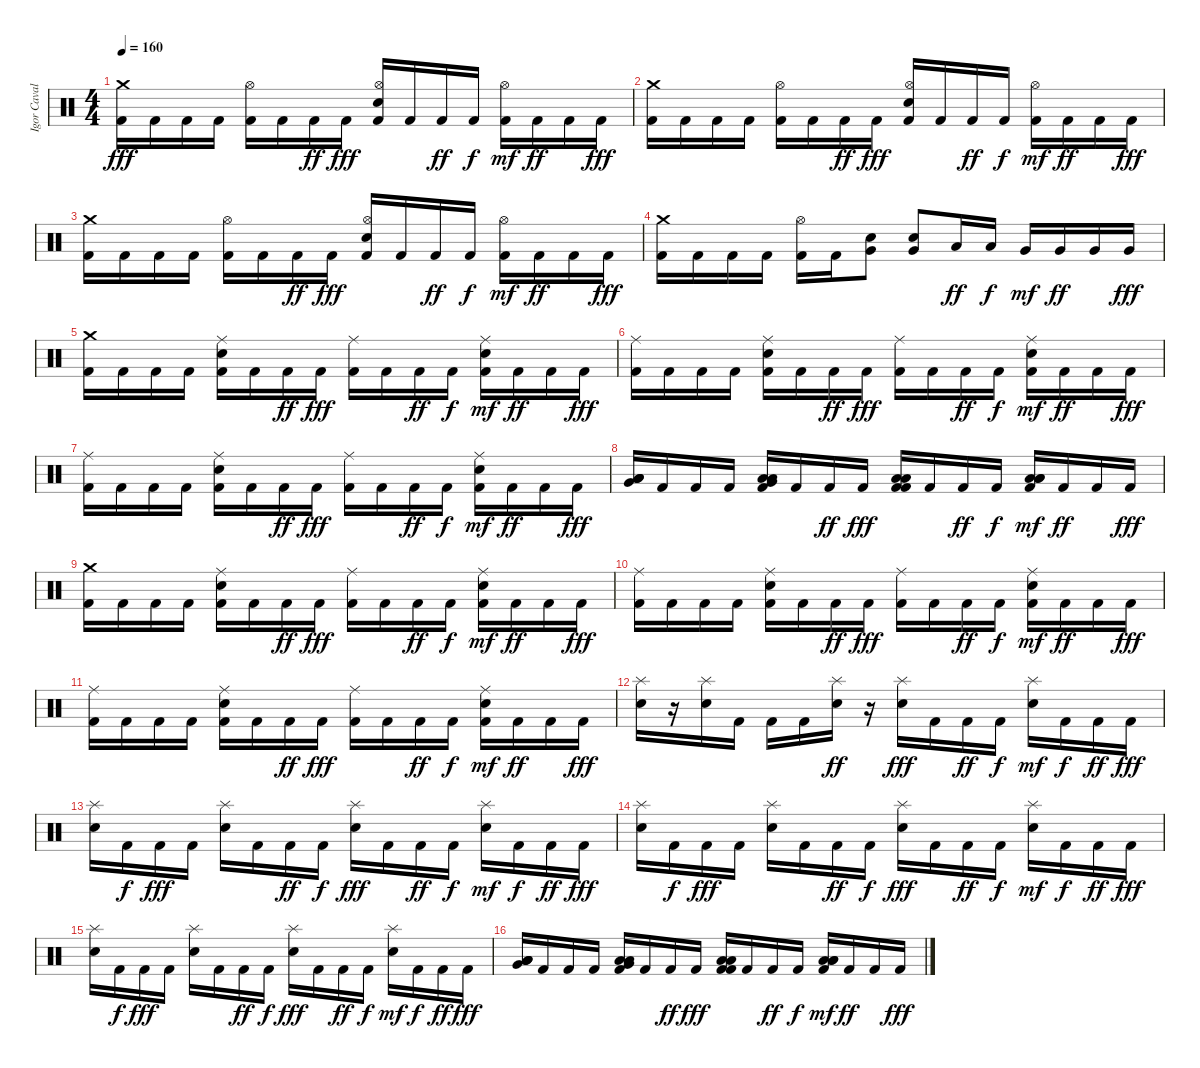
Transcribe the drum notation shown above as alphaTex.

\track ("Igor Cavalera" "Igor Caval") {instrument percussion}
\staff {score}
\articulation defaults
\ts (4 4)
\tempo 160
\clef neutral
\ks c
("Kick (hit) 2" "Crash medium (hit)").16{dy fff} "Kick (hit) 2".16 "Kick (hit) 2".16 "Kick (hit) 2".16 ("Kick (hit) 2" "Hi-Hat (open)").16 "Kick (hit) 2".16 "Kick (hit) 2".16{dy ff} "Kick (hit) 2".16{dy fff} ("Kick (hit) 2" "Electric Snare (hit)" "Hi-Hat (open)").16 "Kick (hit) 2".16 "Kick (hit) 2".16{dy ff} "Kick (hit) 2".16{dy f} ("Kick (hit) 2" "Hi-Hat (open)").16{dy mf} "Kick (hit) 2".16{dy ff} "Kick (hit) 2".16 "Kick (hit) 2".16{dy fff} |
("Kick (hit) 2" "Crash medium (hit)").16 "Kick (hit) 2".16 "Kick (hit) 2".16 "Kick (hit) 2".16 ("Kick (hit) 2" "Hi-Hat (open)").16 "Kick (hit) 2".16 "Kick (hit) 2".16{dy ff} "Kick (hit) 2".16{dy fff} ("Kick (hit) 2" "Electric Snare (hit)" "Hi-Hat (open)").16 "Kick (hit) 2".16 "Kick (hit) 2".16{dy ff} "Kick (hit) 2".16{dy f} ("Kick (hit) 2" "Hi-Hat (open)").16{dy mf} "Kick (hit) 2".16{dy ff} "Kick (hit) 2".16 "Kick (hit) 2".16{dy fff} |
("Kick (hit) 2" "Crash medium (hit)").16 "Kick (hit) 2".16 "Kick (hit) 2".16 "Kick (hit) 2".16 ("Kick (hit) 2" "Hi-Hat (open)").16 "Kick (hit) 2".16 "Kick (hit) 2".16{dy ff} "Kick (hit) 2".16{dy fff} ("Kick (hit) 2" "Electric Snare (hit)" "Hi-Hat (open)").16 "Kick (hit) 2".16 "Kick (hit) 2".16{dy ff} "Kick (hit) 2".16{dy f} ("Kick (hit) 2" "Hi-Hat (open)").16{dy mf} "Kick (hit) 2".16{dy ff} "Kick (hit) 2".16 "Kick (hit) 2".16{dy fff} |
("Kick (hit) 2" "Crash medium (hit)").16 "Kick (hit) 2".16 "Kick (hit) 2".16 "Kick (hit) 2".16 ("Kick (hit) 2" "Hi-Hat (open)").16 "Kick (hit) 2".16 ("Very Low Tom (hit)" "Electric Snare (hit)").8 ("Very Low Tom (hit)" "Electric Snare (hit)").8 "Low Tom (hit)".16{dy ff} "Low Tom (hit)".16{dy f} "Very Low Tom (hit)".16{dy mf} "Very Low Tom (hit)".16{dy ff} "Very Low Tom (hit)".16 "Very Low Tom (hit)".16{dy fff} |
("Kick (hit) 2" "Crash medium (hit)").16 "Kick (hit) 2".16 "Kick (hit) 2".16 "Kick (hit) 2".16 ("Kick (hit) 2" "Electric Snare (hit)" "Ride (middle)").16 "Kick (hit) 2".16 "Kick (hit) 2".16{dy ff} "Kick (hit) 2".16{dy fff} ("Kick (hit) 2" "Ride (middle)").16 "Kick (hit) 2".16 "Kick (hit) 2".16{dy ff} "Kick (hit) 2".16{dy f} ("Kick (hit) 2" "Electric Snare (hit)" "Ride (middle)").16{dy mf} "Kick (hit) 2".16{dy ff} "Kick (hit) 2".16 "Kick (hit) 2".16{dy fff} |
("Kick (hit) 2" "Ride (middle)").16 "Kick (hit) 2".16 "Kick (hit) 2".16 "Kick (hit) 2".16 ("Kick (hit) 2" "Electric Snare (hit)" "Ride (middle)").16 "Kick (hit) 2".16 "Kick (hit) 2".16{dy ff} "Kick (hit) 2".16{dy fff} ("Kick (hit) 2" "Ride (middle)").16 "Kick (hit) 2".16 "Kick (hit) 2".16{dy ff} "Kick (hit) 2".16{dy f} ("Kick (hit) 2" "Electric Snare (hit)" "Ride (middle)").16{dy mf} "Kick (hit) 2".16{dy ff} "Kick (hit) 2".16 "Kick (hit) 2".16{dy fff} |
("Kick (hit) 2" "Ride (middle)").16 "Kick (hit) 2".16 "Kick (hit) 2".16 "Kick (hit) 2".16 ("Kick (hit) 2" "Electric Snare (hit)" "Ride (middle)").16 "Kick (hit) 2".16 "Kick (hit) 2".16{dy ff} "Kick (hit) 2".16{dy fff} ("Kick (hit) 2" "Ride (middle)").16 "Kick (hit) 2".16 "Kick (hit) 2".16{dy ff} "Kick (hit) 2".16{dy f} ("Kick (hit) 2" "Electric Snare (hit)" "Ride (middle)").16{dy mf} "Kick (hit) 2".16{dy ff} "Kick (hit) 2".16 "Kick (hit) 2".16{dy fff} |
("Low Floor Tom (hit)" "Low Tom (hit)" "Low Floor Tom (hit)" "Very Low Tom (hit)").16 "Kick (hit) 2".16 "Kick (hit) 2".16 "Kick (hit) 2".16 ("Low Floor Tom (hit)" "Kick (hit) 2" "Low Floor Tom (hit)" "Very Low Tom (hit)").16 "Kick (hit) 2".16 "Kick (hit) 2".16{dy ff} "Kick (hit) 2".16{dy fff} ("Low Floor Tom (hit)" "Kick (hit) 2" "Low Floor Tom (hit)" "Kick (hit) 2").16 "Kick (hit) 2".16 "Kick (hit) 2".16{dy ff} "Kick (hit) 2".16{dy f} ("Low Floor Tom (hit)" "Kick (hit) 2" "Low Floor Tom (hit)" "Low Tom (hit)").16{dy mf} "Kick (hit) 2".16{dy ff} "Kick (hit) 2".16 "Kick (hit) 2".16{dy fff} |
("Kick (hit) 2" "Crash medium (hit)").16 "Kick (hit) 2".16 "Kick (hit) 2".16 "Kick (hit) 2".16 ("Kick (hit) 2" "Electric Snare (hit)" "Ride (middle)").16 "Kick (hit) 2".16 "Kick (hit) 2".16{dy ff} "Kick (hit) 2".16{dy fff} ("Kick (hit) 2" "Ride (middle)").16 "Kick (hit) 2".16 "Kick (hit) 2".16{dy ff} "Kick (hit) 2".16{dy f} ("Kick (hit) 2" "Electric Snare (hit)" "Ride (middle)").16{dy mf} "Kick (hit) 2".16{dy ff} "Kick (hit) 2".16 "Kick (hit) 2".16{dy fff} |
("Kick (hit) 2" "Ride (middle)").16 "Kick (hit) 2".16 "Kick (hit) 2".16 "Kick (hit) 2".16 ("Kick (hit) 2" "Electric Snare (hit)" "Ride (middle)").16 "Kick (hit) 2".16 "Kick (hit) 2".16{dy ff} "Kick (hit) 2".16{dy fff} ("Kick (hit) 2" "Ride (middle)").16 "Kick (hit) 2".16 "Kick (hit) 2".16{dy ff} "Kick (hit) 2".16{dy f} ("Kick (hit) 2" "Electric Snare (hit)" "Ride (middle)").16{dy mf} "Kick (hit) 2".16{dy ff} "Kick (hit) 2".16 "Kick (hit) 2".16{dy fff} |
("Kick (hit) 2" "Ride (middle)").16 "Kick (hit) 2".16 "Kick (hit) 2".16 "Kick (hit) 2".16 ("Kick (hit) 2" "Electric Snare (hit)" "Ride (middle)").16 "Kick (hit) 2".16 "Kick (hit) 2".16{dy ff} "Kick (hit) 2".16{dy fff} ("Kick (hit) 2" "Ride (middle)").16 "Kick (hit) 2".16 "Kick (hit) 2".16{dy ff} "Kick (hit) 2".16{dy f} ("Kick (hit) 2" "Electric Snare (hit)" "Ride (middle)").16{dy mf} "Kick (hit) 2".16{dy ff} "Kick (hit) 2".16 "Kick (hit) 2".16{dy fff} |
("Splash (hit)" "Electric Snare (hit)").16 r.16 ("Splash (hit)" "Electric Snare (hit)").16 "Kick (hit) 2".16 "Kick (hit) 2".16 "Kick (hit) 2".16 ("Splash (hit)" "Electric Snare (hit)").16{dy ff} r.16 ("Splash (hit)" "Electric Snare (hit)").16{dy fff} "Kick (hit) 2".16 "Kick (hit) 2".16{dy ff} "Kick (hit) 2".16{dy f} ("Splash (hit)" "Electric Snare (hit)").16{dy mf} "Kick (hit) 2".16{dy f} "Kick (hit) 2".16{dy ff} "Kick (hit) 2".16{dy fff} |
("Splash (hit)" "Electric Snare (hit)").16 "Kick (hit) 2".16{dy f} "Kick (hit) 2".16{dy fff} "Kick (hit) 2".16 ("Splash (hit)" "Electric Snare (hit)").16 "Kick (hit) 2".16 "Kick (hit) 2".16{dy ff} "Kick (hit) 2".16{dy f} ("Splash (hit)" "Electric Snare (hit)").16{dy fff} "Kick (hit) 2".16 "Kick (hit) 2".16{dy ff} "Kick (hit) 2".16{dy f} ("Splash (hit)" "Electric Snare (hit)").16{dy mf} "Kick (hit) 2".16{dy f} "Kick (hit) 2".16{dy ff} "Kick (hit) 2".16{dy fff} |
("Splash (hit)" "Electric Snare (hit)").16 "Kick (hit) 2".16{dy f} "Kick (hit) 2".16{dy fff} "Kick (hit) 2".16 ("Splash (hit)" "Electric Snare (hit)").16 "Kick (hit) 2".16 "Kick (hit) 2".16{dy ff} "Kick (hit) 2".16{dy f} ("Splash (hit)" "Electric Snare (hit)").16{dy fff} "Kick (hit) 2".16 "Kick (hit) 2".16{dy ff} "Kick (hit) 2".16{dy f} ("Splash (hit)" "Electric Snare (hit)").16{dy mf} "Kick (hit) 2".16{dy f} "Kick (hit) 2".16{dy ff} "Kick (hit) 2".16{dy fff} |
("Splash (hit)" "Electric Snare (hit)").16 "Kick (hit) 2".16{dy f} "Kick (hit) 2".16{dy fff} "Kick (hit) 2".16 ("Splash (hit)" "Electric Snare (hit)").16 "Kick (hit) 2".16 "Kick (hit) 2".16{dy ff} "Kick (hit) 2".16{dy f} ("Splash (hit)" "Electric Snare (hit)").16{dy fff} "Kick (hit) 2".16 "Kick (hit) 2".16{dy ff} "Kick (hit) 2".16{dy f} ("Splash (hit)" "Electric Snare (hit)").16{dy mf} "Kick (hit) 2".16{dy f} "Kick (hit) 2".16{dy ff} "Kick (hit) 2".16{dy fff} |
("Low Floor Tom (hit)" "Low Tom (hit)" "Low Floor Tom (hit)" "Very Low Tom (hit)").16 "Kick (hit) 2".16 "Kick (hit) 2".16 "Kick (hit) 2".16 ("Low Floor Tom (hit)" "Kick (hit) 2" "Low Floor Tom (hit)" "Very Low Tom (hit)").16 "Kick (hit) 2".16 "Kick (hit) 2".16{dy ff} "Kick (hit) 2".16{dy fff} ("Low Floor Tom (hit)" "Kick (hit) 2" "Low Floor Tom (hit)" "Kick (hit) 2").16 "Kick (hit) 2".16 "Kick (hit) 2".16{dy ff} "Kick (hit) 2".16{dy f} ("Low Floor Tom (hit)" "Kick (hit) 2" "Low Floor Tom (hit)" "Low Tom (hit)").16{dy mf} "Kick (hit) 2".16{dy ff} "Kick (hit) 2".16 "Kick (hit) 2".16{dy fff}
